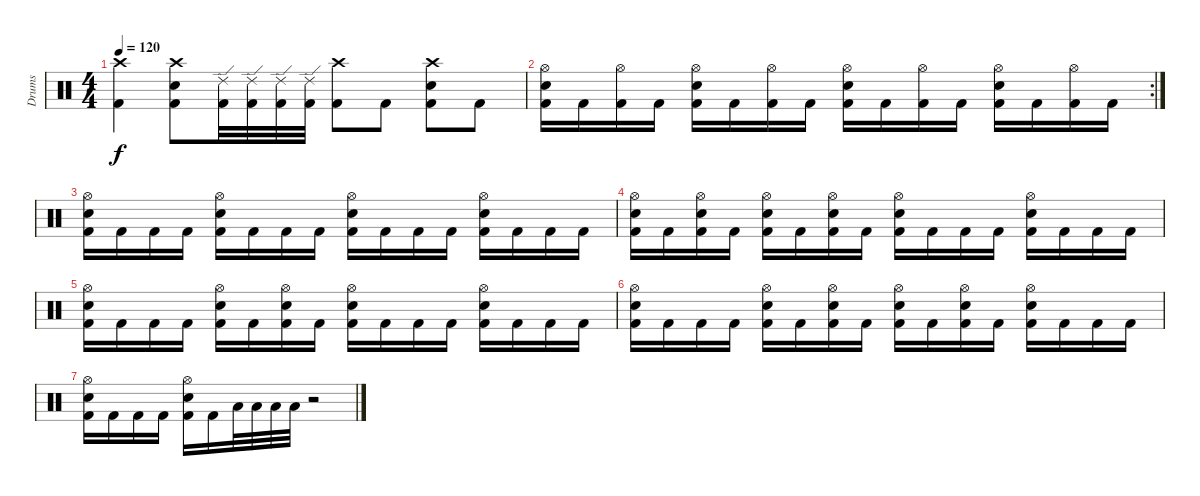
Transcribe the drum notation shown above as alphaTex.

\track ("Drums" "Drums") {instrument percussion}
\staff {score}
\articulation defaults
\ts (4 4)
\tempo 120
\clef neutral
\ks c
("Crash high (hit)" "Kick (hit) 2").4{dy f} ("Crash high (hit)" "Electric Snare (hit)" "Kick (hit) 2").8 ("Ride (edge) 2" "Kick (hit) 2").32 ("Ride (edge) 2" "Kick (hit) 2").32 ("Ride (edge) 2" "Kick (hit) 2").32 ("Ride (edge) 2" "Kick (hit) 2").32 ("Crash high (hit)" "Kick (hit) 2").8 "Kick (hit) 2".8 ("Crash high (hit)" "Electric Snare (hit)" "Kick (hit) 2").8 "Kick (hit) 2".8 |
\rc 2
("Hi-Hat (open)" "Electric Snare (hit)" "Kick (hit) 2").16 "Kick (hit) 2".16 ("Hi-Hat (open)" "Kick (hit) 2").16 "Kick (hit) 2".16 ("Hi-Hat (open)" "Electric Snare (hit)" "Kick (hit) 2").16 "Kick (hit) 2".16 ("Hi-Hat (open)" "Kick (hit) 2").16 "Kick (hit) 2".16 ("Hi-Hat (open)" "Electric Snare (hit)" "Kick (hit) 2").16 "Kick (hit) 2".16 ("Hi-Hat (open)" "Kick (hit) 2").16 "Kick (hit) 2".16 ("Hi-Hat (open)" "Electric Snare (hit)" "Kick (hit) 2").16 "Kick (hit) 2".16 ("Hi-Hat (open)" "Kick (hit) 2").16 "Kick (hit) 2".16 |
("Hi-Hat (open)" "Electric Snare (hit)" "Kick (hit) 2").16 "Kick (hit) 2".16 "Kick (hit) 2".16 "Kick (hit) 2".16 ("Hi-Hat (open)" "Electric Snare (hit)" "Kick (hit) 2").16 "Kick (hit) 2".16 "Kick (hit) 2".16 "Kick (hit) 2".16 ("Hi-Hat (open)" "Electric Snare (hit)" "Kick (hit) 2").16 "Kick (hit) 2".16 "Kick (hit) 2".16 "Kick (hit) 2".16 ("Hi-Hat (open)" "Electric Snare (hit)" "Kick (hit) 2").16 "Kick (hit) 2".16 "Kick (hit) 2".16 "Kick (hit) 2".16 |
("Hi-Hat (open)" "Electric Snare (hit)" "Kick (hit) 2").16 "Kick (hit) 2".16 ("Hi-Hat (open)" "Electric Snare (hit)" "Kick (hit) 2").16 "Kick (hit) 2".16 ("Hi-Hat (open)" "Electric Snare (hit)" "Kick (hit) 2").16 "Kick (hit) 2".16 ("Hi-Hat (open)" "Electric Snare (hit)" "Kick (hit) 2").16 "Kick (hit) 2".16 ("Hi-Hat (open)" "Electric Snare (hit)" "Kick (hit) 2").16 "Kick (hit) 2".16 "Kick (hit) 2".16 "Kick (hit) 2".16 ("Hi-Hat (open)" "Electric Snare (hit)" "Kick (hit) 2").16 "Kick (hit) 2".16 "Kick (hit) 2".16 "Kick (hit) 2".16 |
("Hi-Hat (open)" "Electric Snare (hit)" "Kick (hit) 2").16 "Kick (hit) 2".16 "Kick (hit) 2".16 "Kick (hit) 2".16 ("Hi-Hat (open)" "Electric Snare (hit)" "Kick (hit) 2").16 "Kick (hit) 2".16 ("Hi-Hat (open)" "Electric Snare (hit)" "Kick (hit) 2").16 "Kick (hit) 2".16 ("Hi-Hat (open)" "Electric Snare (hit)" "Kick (hit) 2").16 "Kick (hit) 2".16 "Kick (hit) 2".16 "Kick (hit) 2".16 ("Hi-Hat (open)" "Electric Snare (hit)" "Kick (hit) 2").16 "Kick (hit) 2".16 "Kick (hit) 2".16 "Kick (hit) 2".16 |
("Hi-Hat (open)" "Electric Snare (hit)" "Kick (hit) 2").16 "Kick (hit) 2".16 "Kick (hit) 2".16 "Kick (hit) 2".16 ("Hi-Hat (open)" "Electric Snare (hit)" "Kick (hit) 2").16 "Kick (hit) 2".16 ("Hi-Hat (open)" "Electric Snare (hit)" "Kick (hit) 2").16 "Kick (hit) 2".16 ("Hi-Hat (open)" "Electric Snare (hit)" "Kick (hit) 2").16 "Kick (hit) 2".16 ("Hi-Hat (open)" "Electric Snare (hit)" "Kick (hit) 2").16 "Kick (hit) 2".16 ("Hi-Hat (open)" "Electric Snare (hit)" "Kick (hit) 2").16 "Kick (hit) 2".16 "Kick (hit) 2".16 "Kick (hit) 2".16 |
("Hi-Hat (open)" "Electric Snare (hit)" "Kick (hit) 2").16 "Kick (hit) 2".16 "Kick (hit) 2".16 "Kick (hit) 2".16 ("Hi-Hat (open)" "Electric Snare (hit)" "Kick (hit) 2").16 "Kick (hit) 2".16 "Low Tom (hit)".32 "Low Tom (hit)".32 "Low Tom (hit)".32 "Low Tom (hit)".32 r.2
